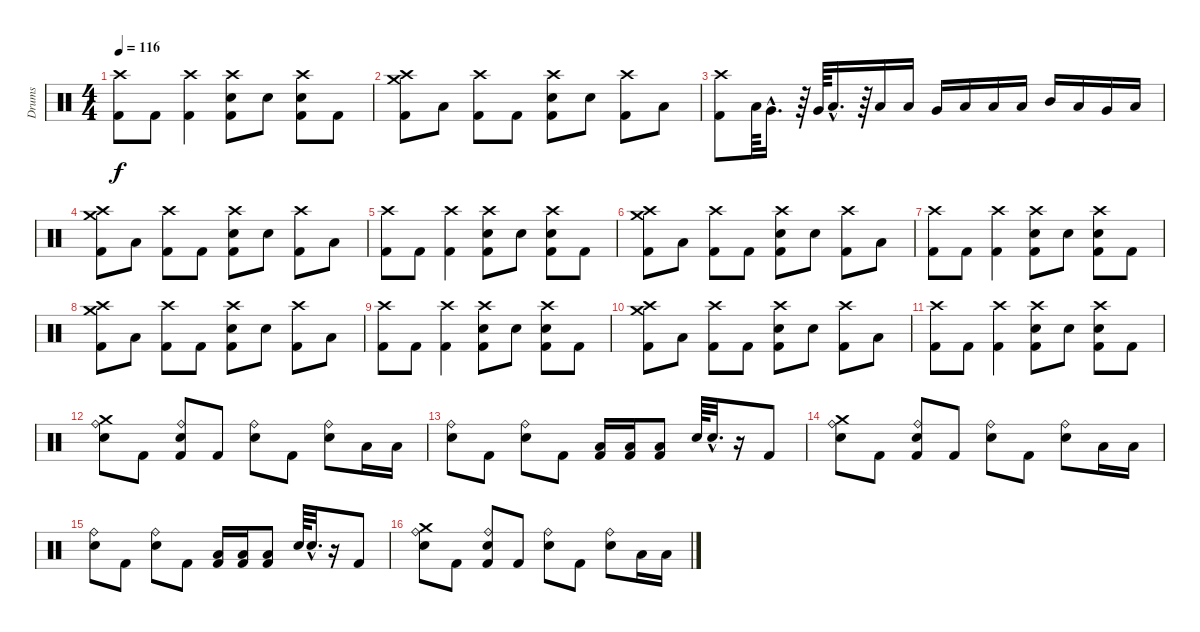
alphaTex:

\track ("Drums" "Drums") {instrument percussion}
\staff {score}
\articulation defaults
\ts (4 4)
\tempo 116
\clef neutral
\ks c
("Crash high (hit)" "Kick (hit) 2").8{dy f} "Kick (hit) 2".8 ("Crash high (hit)" "Kick (hit) 2").4 ("Crash high (hit)" "Electric Snare (hit)" "Kick (hit) 2").8 "Electric Snare (hit)".8 ("Crash high (hit)" "Electric Snare (hit)" "Kick (hit) 2").8 "Kick (hit) 2".8 |
("Crash medium (hit)" "Crash high (hit)" "Kick (hit) 2").8 "Low Floor Tom (hit)".8 ("Crash high (hit)" "Kick (hit) 2").8 "Kick (hit) 2".8 ("Crash high (hit)" "Electric Snare (hit)" "Kick (hit) 2").8 "Electric Snare (hit)".8 ("Crash high (hit)" "Kick (hit) 2").8 "Low Floor Tom (hit)".8 |
("Crash high (hit)" "Kick (hit) 2").8 "Low Tom (hit)".64 "Very Low Tom (hit)"{hac}.16{d} r.64 "Very Low Tom (hit)".64 "Low Floor Tom (hit)"{hac}.16{d} r.64 "Low Floor Tom (hit)".16 "Low Floor Tom (hit)".16 "Very Low Tom (hit)".16 "Low Floor Tom (hit)".16 "Low Floor Tom (hit)".16 "Low Floor Tom (hit)".16 "Mid Tom (hit)".16 "Low Tom (hit)".16 "Very Low Tom (hit)".16 "Low Floor Tom (hit)".16 |
("Crash medium (hit)" "Crash high (hit)" "Kick (hit) 2").8 "Low Floor Tom (hit)".8 ("Crash high (hit)" "Kick (hit) 2").8 "Kick (hit) 2".8 ("Crash high (hit)" "Electric Snare (hit)" "Kick (hit) 2").8 "Electric Snare (hit)".8 ("Crash high (hit)" "Kick (hit) 2").8 "Low Floor Tom (hit)".8 |
("Crash high (hit)" "Kick (hit) 2").8 "Kick (hit) 2".8 ("Crash high (hit)" "Kick (hit) 2").4 ("Crash high (hit)" "Electric Snare (hit)" "Kick (hit) 2").8 "Electric Snare (hit)".8 ("Crash high (hit)" "Electric Snare (hit)" "Kick (hit) 2").8 "Kick (hit) 2".8 |
("Crash medium (hit)" "Crash high (hit)" "Kick (hit) 2").8 "Low Floor Tom (hit)".8 ("Crash high (hit)" "Kick (hit) 2").8 "Kick (hit) 2".8 ("Crash high (hit)" "Electric Snare (hit)" "Kick (hit) 2").8 "Electric Snare (hit)".8 ("Crash high (hit)" "Kick (hit) 2").8 "Low Floor Tom (hit)".8 |
("Crash high (hit)" "Kick (hit) 2").8 "Kick (hit) 2".8 ("Crash high (hit)" "Kick (hit) 2").4 ("Crash high (hit)" "Electric Snare (hit)" "Kick (hit) 2").8 "Electric Snare (hit)".8 ("Crash high (hit)" "Electric Snare (hit)" "Kick (hit) 2").8 "Kick (hit) 2".8 |
("Crash medium (hit)" "Crash high (hit)" "Kick (hit) 2").8 "Low Floor Tom (hit)".8 ("Crash high (hit)" "Kick (hit) 2").8 "Kick (hit) 2".8 ("Crash high (hit)" "Electric Snare (hit)" "Kick (hit) 2").8 "Electric Snare (hit)".8 ("Crash high (hit)" "Kick (hit) 2").8 "Low Floor Tom (hit)".8 |
("Crash high (hit)" "Kick (hit) 2").8 "Kick (hit) 2".8 ("Crash high (hit)" "Kick (hit) 2").4 ("Crash high (hit)" "Electric Snare (hit)" "Kick (hit) 2").8 "Electric Snare (hit)".8 ("Crash high (hit)" "Electric Snare (hit)" "Kick (hit) 2").8 "Kick (hit) 2".8 |
("Crash medium (hit)" "Crash high (hit)" "Kick (hit) 2").8 "Low Floor Tom (hit)".8 ("Crash high (hit)" "Kick (hit) 2").8 "Kick (hit) 2".8 ("Crash high (hit)" "Electric Snare (hit)" "Kick (hit) 2").8 "Electric Snare (hit)".8 ("Crash high (hit)" "Kick (hit) 2").8 "Low Floor Tom (hit)".8 |
("Crash high (hit)" "Kick (hit) 2").8 "Kick (hit) 2".8 ("Crash high (hit)" "Kick (hit) 2").4 ("Crash high (hit)" "Electric Snare (hit)" "Kick (hit) 2").8 "Electric Snare (hit)".8 ("Crash high (hit)" "Electric Snare (hit)" "Kick (hit) 2").8 "Kick (hit) 2".8 |
("Crash medium (hit)" "Ride (bell)" "Snare (hit) 2").8 "Kick (hit) 2".8 ("Ride (bell)" "Snare (hit) 2" "Kick (hit) 2").8 "Kick (hit) 2".8 ("Ride (bell)" "Snare (hit) 2").8 "Kick (hit) 2".8 ("Ride (bell)" "Snare (hit) 2").8 "Low Floor Tom (hit)".16 "Low Floor Tom (hit)".16 |
("Ride (bell)" "Snare (hit) 2").8 "Kick (hit) 2".8 ("Ride (bell)" "Snare (hit) 2").8 "Kick (hit) 2".8 ("Low Floor Tom (hit)" "Kick (hit) 2").16 ("Low Floor Tom (hit)" "Kick (hit) 2").16 ("Low Floor Tom (hit)" "Kick (hit) 2").8 "Snare (hit) 2".64 "Electric Snare (hit)"{hac}.32{d} r.16 "Kick (hit) 2".8 |
("Crash medium (hit)" "Ride (bell)" "Snare (hit) 2").8 "Kick (hit) 2".8 ("Ride (bell)" "Snare (hit) 2" "Kick (hit) 2").8 "Kick (hit) 2".8 ("Ride (bell)" "Snare (hit) 2").8 "Kick (hit) 2".8 ("Ride (bell)" "Snare (hit) 2").8 "Low Floor Tom (hit)".16 "Low Floor Tom (hit)".16 |
("Ride (bell)" "Snare (hit) 2").8 "Kick (hit) 2".8 ("Ride (bell)" "Snare (hit) 2").8 "Kick (hit) 2".8 ("Low Floor Tom (hit)" "Kick (hit) 2").16 ("Low Floor Tom (hit)" "Kick (hit) 2").16 ("Low Floor Tom (hit)" "Kick (hit) 2").8 "Snare (hit) 2".64 "Electric Snare (hit)"{hac}.32{d} r.16 "Kick (hit) 2".8 |
("Crash medium (hit)" "Ride (bell)" "Snare (hit) 2").8 "Kick (hit) 2".8 ("Ride (bell)" "Snare (hit) 2" "Kick (hit) 2").8 "Kick (hit) 2".8 ("Ride (bell)" "Snare (hit) 2").8 "Kick (hit) 2".8 ("Ride (bell)" "Snare (hit) 2").8 "Low Floor Tom (hit)".16 "Low Floor Tom (hit)".16
